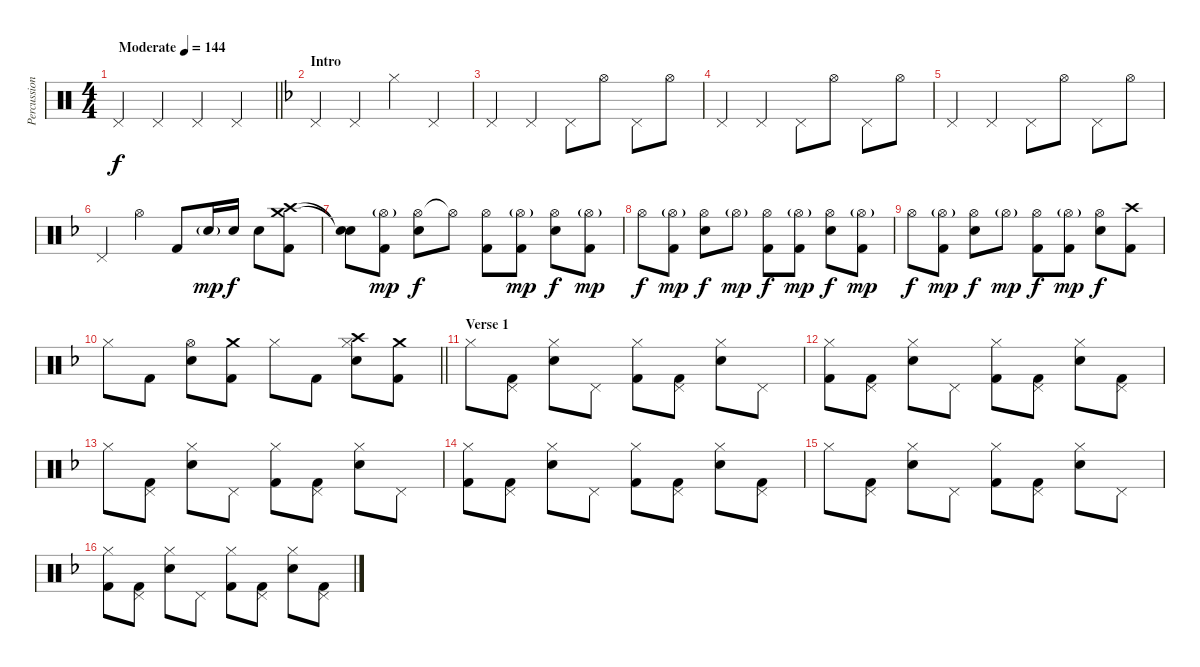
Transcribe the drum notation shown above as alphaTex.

\track ("Percussion" "Percussion") {instrument percussion}
\staff {score}
\articulation defaults
\ts (4 4)
\tempo (144 "Moderate")
\clef neutral
\barLineRight lightlight
\ks c "Pedal Hi-Hat (hit)".4{dy f} "Pedal Hi-Hat (hit)".4 "Pedal Hi-Hat (hit)".4 "Pedal Hi-Hat (hit)".4
|
\section ("" "Intro")
\ks f "Pedal Hi-Hat (hit)".4 "Pedal Hi-Hat (hit)".4 "Hi-Hat (closed)".4 "Pedal Hi-Hat (hit)".4
|
"Pedal Hi-Hat (hit)".4 "Pedal Hi-Hat (hit)".4 "Pedal Hi-Hat (hit)".8 "Hi-Hat (open)".8 "Pedal Hi-Hat (hit)".8 "Hi-Hat (open)".8 |
"Pedal Hi-Hat (hit)".4 "Pedal Hi-Hat (hit)".4 "Pedal Hi-Hat (hit)".8 "Hi-Hat (open)".8 "Pedal Hi-Hat (hit)".8 "Hi-Hat (open)".8 |
"Pedal Hi-Hat (hit)".4 "Pedal Hi-Hat (hit)".4 "Pedal Hi-Hat (hit)".8 "Hi-Hat (open)".8 "Pedal Hi-Hat (hit)".8 "Hi-Hat (open)".8 |
"Pedal Hi-Hat (hit)".4 "Hi-Hat (open)".4 "Kick (hit) 2".8 "Electric Snare (hit)"{g}.16{dy mp} "Electric Snare (hit)".16{dy f} "Electric Snare (hit)".8 ("Crash medium (hit)" "Crash high (hit)" "Kick (hit) 2").8 |
("Snare (hit)"{t} "Snare (hit)"{t}).8 ("Hi-Hat (open)"{g} "Kick (hit) 2").8{dy mp} ("Hi-Hat (open)" "Electric Snare (hit)").8{dy f} "Hi-Hat (open)"{t}.8 ("Hi-Hat (open)" "Kick (hit) 2").8 ("Hi-Hat (open)"{g} "Kick (hit) 2").8{dy mp} ("Hi-Hat (open)" "Electric Snare (hit)").8{dy f} ("Hi-Hat (open)"{g} "Kick (hit) 2").8{dy mp} |
"Hi-Hat (open)".8{dy f} ("Hi-Hat (open)"{g} "Kick (hit) 2").8{dy mp} ("Hi-Hat (open)" "Electric Snare (hit)").8{dy f} "Hi-Hat (open)"{g}.8{dy mp} ("Hi-Hat (open)" "Kick (hit) 2").8{dy f} ("Hi-Hat (open)"{g} "Kick (hit) 2").8{dy mp} ("Hi-Hat (open)" "Electric Snare (hit)").8{dy f} ("Hi-Hat (open)"{g} "Kick (hit) 2").8{dy mp} |
"Hi-Hat (open)".8{dy f} ("Hi-Hat (open)"{g} "Kick (hit) 2").8{dy mp} ("Hi-Hat (open)" "Electric Snare (hit)").8{dy f} "Hi-Hat (open)"{g}.8{dy mp} ("Hi-Hat (open)" "Kick (hit) 2").8{dy f} ("Hi-Hat (open)"{g} "Kick (hit) 2").8{dy mp} ("Hi-Hat (open)" "Electric Snare (hit)").8{dy f} ("Crash high (hit)" "Kick (hit) 2").8 |
\barLineRight lightlight "Hi-Hat (closed)".8 "Kick (hit) 2".8
("Hi-Hat (open)" "Electric Snare (hit)").8 ("Crash medium (hit)" "Kick (hit) 2").8 "Hi-Hat (closed)".8 "Kick (hit) 2".8 ("Crash high (hit)" "Hi-Hat (closed)" "Electric Snare (hit)").8 ("Crash medium (hit)" "Kick (hit) 2").8 |
\section ("" "Verse 1")
"Hi-Hat (closed)".8 ("Pedal Hi-Hat (hit)" "Kick (hit) 2").8 ("Electric Snare (hit)" "Hi-Hat (closed)").8 "Pedal Hi-Hat (hit)".8 ("Hi-Hat (closed)" "Kick (hit) 2").8 ("Pedal Hi-Hat (hit)" "Kick (hit) 2").8 ("Electric Snare (hit)" "Hi-Hat (closed)").8 "Pedal Hi-Hat (hit)".8 |
("Hi-Hat (closed)" "Kick (hit) 2").8 ("Pedal Hi-Hat (hit)" "Kick (hit) 2").8 ("Electric Snare (hit)" "Hi-Hat (closed)").8 "Pedal Hi-Hat (hit)".8 ("Hi-Hat (closed)" "Kick (hit) 2").8 ("Pedal Hi-Hat (hit)" "Kick (hit) 2").8 ("Electric Snare (hit)" "Hi-Hat (closed)").8 ("Pedal Hi-Hat (hit)" "Kick (hit) 2").8 |
"Hi-Hat (closed)".8 ("Pedal Hi-Hat (hit)" "Kick (hit) 2").8 ("Electric Snare (hit)" "Hi-Hat (closed)").8 "Pedal Hi-Hat (hit)".8 ("Hi-Hat (closed)" "Kick (hit) 2").8 ("Pedal Hi-Hat (hit)" "Kick (hit) 2").8 ("Electric Snare (hit)" "Hi-Hat (closed)").8 "Pedal Hi-Hat (hit)".8 |
("Hi-Hat (closed)" "Kick (hit) 2").8 ("Pedal Hi-Hat (hit)" "Kick (hit) 2").8 ("Electric Snare (hit)" "Hi-Hat (closed)").8 "Pedal Hi-Hat (hit)".8 ("Hi-Hat (closed)" "Kick (hit) 2").8 ("Pedal Hi-Hat (hit)" "Kick (hit) 2").8 ("Electric Snare (hit)" "Hi-Hat (closed)").8 ("Pedal Hi-Hat (hit)" "Kick (hit) 2").8 |
"Hi-Hat (closed)".8 ("Pedal Hi-Hat (hit)" "Kick (hit) 2").8 ("Electric Snare (hit)" "Hi-Hat (closed)").8 "Pedal Hi-Hat (hit)".8 ("Hi-Hat (closed)" "Kick (hit) 2").8 ("Pedal Hi-Hat (hit)" "Kick (hit) 2").8 ("Electric Snare (hit)" "Hi-Hat (closed)").8 "Pedal Hi-Hat (hit)".8 |
("Hi-Hat (closed)" "Kick (hit) 2").8 ("Pedal Hi-Hat (hit)" "Kick (hit) 2").8 ("Electric Snare (hit)" "Hi-Hat (closed)").8 "Pedal Hi-Hat (hit)".8 ("Hi-Hat (closed)" "Kick (hit) 2").8 ("Pedal Hi-Hat (hit)" "Kick (hit) 2").8 ("Electric Snare (hit)" "Hi-Hat (closed)").8 ("Pedal Hi-Hat (hit)" "Kick (hit) 2").8
